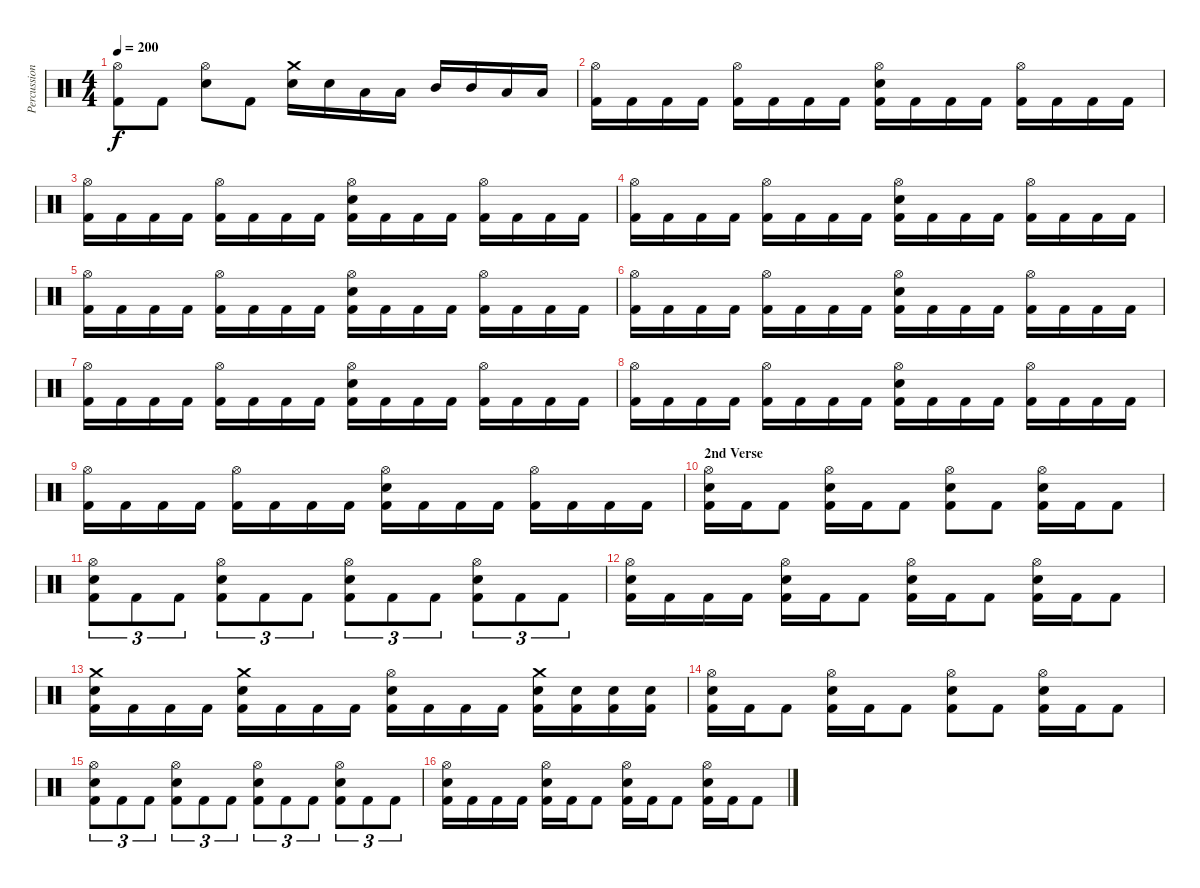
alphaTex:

\track ("Percussion" "Percussion") {instrument percussion}
\staff {score}
\articulation defaults
\ts (4 4)
\tempo 200
\clef neutral
\ks c
("Hi-Hat (open)" "Kick (hit) 2").8{dy f} "Kick (hit) 2".8 ("Hi-Hat (open)" "Electric Snare (hit)").8 "Kick (hit) 2".8 ("Crash medium (hit)" "Electric Snare (hit)").16 "Electric Snare (hit)".16 "Low Tom (hit)".16 "Low Tom (hit)".16 "Mid Tom (hit)".16 "Mid Tom (hit)".16 "Low Floor Tom (hit)".16 "Low Floor Tom (hit)".16 |
("Hi-Hat (open)" "Kick (hit) 2").16 "Kick (hit) 2".16 "Kick (hit) 2".16 "Kick (hit) 2".16 ("Hi-Hat (open)" "Kick (hit) 2").16 "Kick (hit) 2".16 "Kick (hit) 2".16 "Kick (hit) 2".16 ("Hi-Hat (open)" "Electric Snare (hit)" "Kick (hit) 2").16 "Kick (hit) 2".16 "Kick (hit) 2".16 "Kick (hit) 2".16 ("Hi-Hat (open)" "Kick (hit) 2").16 "Kick (hit) 2".16 "Kick (hit) 2".16 "Kick (hit) 2".16 |
("Hi-Hat (open)" "Kick (hit) 2").16 "Kick (hit) 2".16 "Kick (hit) 2".16 "Kick (hit) 2".16 ("Hi-Hat (open)" "Kick (hit) 2").16 "Kick (hit) 2".16 "Kick (hit) 2".16 "Kick (hit) 2".16 ("Hi-Hat (open)" "Electric Snare (hit)" "Kick (hit) 2").16 "Kick (hit) 2".16 "Kick (hit) 2".16 "Kick (hit) 2".16 ("Hi-Hat (open)" "Kick (hit) 2").16 "Kick (hit) 2".16 "Kick (hit) 2".16 "Kick (hit) 2".16 |
("Hi-Hat (open)" "Kick (hit) 2").16 "Kick (hit) 2".16 "Kick (hit) 2".16 "Kick (hit) 2".16 ("Hi-Hat (open)" "Kick (hit) 2").16 "Kick (hit) 2".16 "Kick (hit) 2".16 "Kick (hit) 2".16 ("Hi-Hat (open)" "Electric Snare (hit)" "Kick (hit) 2").16 "Kick (hit) 2".16 "Kick (hit) 2".16 "Kick (hit) 2".16 ("Hi-Hat (open)" "Kick (hit) 2").16 "Kick (hit) 2".16 "Kick (hit) 2".16 "Kick (hit) 2".16 |
("Hi-Hat (open)" "Kick (hit) 2").16 "Kick (hit) 2".16 "Kick (hit) 2".16 "Kick (hit) 2".16 ("Hi-Hat (open)" "Kick (hit) 2").16 "Kick (hit) 2".16 "Kick (hit) 2".16 "Kick (hit) 2".16 ("Hi-Hat (open)" "Electric Snare (hit)" "Kick (hit) 2").16 "Kick (hit) 2".16 "Kick (hit) 2".16 "Kick (hit) 2".16 ("Hi-Hat (open)" "Kick (hit) 2").16 "Kick (hit) 2".16 "Kick (hit) 2".16 "Kick (hit) 2".16 |
("Hi-Hat (open)" "Kick (hit) 2").16 "Kick (hit) 2".16 "Kick (hit) 2".16 "Kick (hit) 2".16 ("Hi-Hat (open)" "Kick (hit) 2").16 "Kick (hit) 2".16 "Kick (hit) 2".16 "Kick (hit) 2".16 ("Hi-Hat (open)" "Electric Snare (hit)" "Kick (hit) 2").16 "Kick (hit) 2".16 "Kick (hit) 2".16 "Kick (hit) 2".16 ("Hi-Hat (open)" "Kick (hit) 2").16 "Kick (hit) 2".16 "Kick (hit) 2".16 "Kick (hit) 2".16 |
("Hi-Hat (open)" "Kick (hit) 2").16 "Kick (hit) 2".16 "Kick (hit) 2".16 "Kick (hit) 2".16 ("Hi-Hat (open)" "Kick (hit) 2").16 "Kick (hit) 2".16 "Kick (hit) 2".16 "Kick (hit) 2".16 ("Hi-Hat (open)" "Electric Snare (hit)" "Kick (hit) 2").16 "Kick (hit) 2".16 "Kick (hit) 2".16 "Kick (hit) 2".16 ("Hi-Hat (open)" "Kick (hit) 2").16 "Kick (hit) 2".16 "Kick (hit) 2".16 "Kick (hit) 2".16 |
("Hi-Hat (open)" "Kick (hit) 2").16 "Kick (hit) 2".16 "Kick (hit) 2".16 "Kick (hit) 2".16 ("Hi-Hat (open)" "Kick (hit) 2").16 "Kick (hit) 2".16 "Kick (hit) 2".16 "Kick (hit) 2".16 ("Hi-Hat (open)" "Electric Snare (hit)" "Kick (hit) 2").16 "Kick (hit) 2".16 "Kick (hit) 2".16 "Kick (hit) 2".16 ("Hi-Hat (open)" "Kick (hit) 2").16 "Kick (hit) 2".16 "Kick (hit) 2".16 "Kick (hit) 2".16 |
("Hi-Hat (open)" "Kick (hit) 2").16 "Kick (hit) 2".16 "Kick (hit) 2".16 "Kick (hit) 2".16 ("Hi-Hat (open)" "Kick (hit) 2").16 "Kick (hit) 2".16 "Kick (hit) 2".16 "Kick (hit) 2".16 ("Hi-Hat (open)" "Electric Snare (hit)" "Kick (hit) 2").16 "Kick (hit) 2".16 "Kick (hit) 2".16 "Kick (hit) 2".16 ("Hi-Hat (open)" "Kick (hit) 2").16 "Kick (hit) 2".16 "Kick (hit) 2".16 "Kick (hit) 2".16 |
\section ("" "2nd Verse")
("Hi-Hat (open)" "Electric Snare (hit)" "Kick (hit) 2").16 "Kick (hit) 2".16 "Kick (hit) 2".8 ("Hi-Hat (open)" "Electric Snare (hit)" "Kick (hit) 2").16 "Kick (hit) 2".16 "Kick (hit) 2".8 ("Hi-Hat (open)" "Electric Snare (hit)" "Kick (hit) 2").8 "Kick (hit) 2".8 ("Hi-Hat (open)" "Electric Snare (hit)" "Kick (hit) 2").16 "Kick (hit) 2".16 "Kick (hit) 2".8 |
("Hi-Hat (open)" "Electric Snare (hit)" "Kick (hit) 2").8{tu (3 2)} "Kick (hit) 2".8{tu (3 2)} "Kick (hit) 2".8{tu (3 2)} ("Hi-Hat (open)" "Electric Snare (hit)" "Kick (hit) 2").8{tu (3 2)} "Kick (hit) 2".8{tu (3 2)} "Kick (hit) 2".8{tu (3 2)} ("Hi-Hat (open)" "Electric Snare (hit)" "Kick (hit) 2").8{tu (3 2)} "Kick (hit) 2".8{tu (3 2)} "Kick (hit) 2".8{tu (3 2)} ("Hi-Hat (open)" "Electric Snare (hit)" "Kick (hit) 2").8{tu (3 2)} "Kick (hit) 2".8{tu (3 2)} "Kick (hit) 2".8{tu (3 2)} |
("Hi-Hat (open)" "Electric Snare (hit)" "Kick (hit) 2").16 "Kick (hit) 2".16 "Kick (hit) 2".16 "Kick (hit) 2".16 ("Hi-Hat (open)" "Electric Snare (hit)" "Kick (hit) 2").16 "Kick (hit) 2".16 "Kick (hit) 2".8 ("Hi-Hat (open)" "Electric Snare (hit)" "Kick (hit) 2").16 "Kick (hit) 2".16 "Kick (hit) 2".8 ("Hi-Hat (open)" "Electric Snare (hit)" "Kick (hit) 2").16 "Kick (hit) 2".16 "Kick (hit) 2".8 |
("Crash medium (hit)" "Electric Snare (hit)" "Kick (hit) 2").16 "Kick (hit) 2".16 "Kick (hit) 2".16 "Kick (hit) 2".16 ("Crash medium (hit)" "Electric Snare (hit)" "Kick (hit) 2").16 "Kick (hit) 2".16 "Kick (hit) 2".16 "Kick (hit) 2".16 ("Hi-Hat (open)" "Electric Snare (hit)" "Kick (hit) 2").16 "Kick (hit) 2".16 "Kick (hit) 2".16 "Kick (hit) 2".16 ("Crash medium (hit)" "Electric Snare (hit)" "Kick (hit) 2").16 ("Electric Snare (hit)" "Kick (hit) 2").16 ("Electric Snare (hit)" "Kick (hit) 2").16 ("Electric Snare (hit)" "Kick (hit) 2").16 |
("Hi-Hat (open)" "Electric Snare (hit)" "Kick (hit) 2").16 "Kick (hit) 2".16 "Kick (hit) 2".8 ("Hi-Hat (open)" "Electric Snare (hit)" "Kick (hit) 2").16 "Kick (hit) 2".16 "Kick (hit) 2".8 ("Hi-Hat (open)" "Electric Snare (hit)" "Kick (hit) 2").8 "Kick (hit) 2".8 ("Hi-Hat (open)" "Electric Snare (hit)" "Kick (hit) 2").16 "Kick (hit) 2".16 "Kick (hit) 2".8 |
("Hi-Hat (open)" "Electric Snare (hit)" "Kick (hit) 2").8{tu (3 2)} "Kick (hit) 2".8{tu (3 2)} "Kick (hit) 2".8{tu (3 2)} ("Hi-Hat (open)" "Electric Snare (hit)" "Kick (hit) 2").8{tu (3 2)} "Kick (hit) 2".8{tu (3 2)} "Kick (hit) 2".8{tu (3 2)} ("Hi-Hat (open)" "Electric Snare (hit)" "Kick (hit) 2").8{tu (3 2)} "Kick (hit) 2".8{tu (3 2)} "Kick (hit) 2".8{tu (3 2)} ("Hi-Hat (open)" "Electric Snare (hit)" "Kick (hit) 2").8{tu (3 2)} "Kick (hit) 2".8{tu (3 2)} "Kick (hit) 2".8{tu (3 2)} |
("Hi-Hat (open)" "Electric Snare (hit)" "Kick (hit) 2").16 "Kick (hit) 2".16 "Kick (hit) 2".16 "Kick (hit) 2".16 ("Hi-Hat (open)" "Electric Snare (hit)" "Kick (hit) 2").16 "Kick (hit) 2".16 "Kick (hit) 2".8 ("Hi-Hat (open)" "Electric Snare (hit)" "Kick (hit) 2").16 "Kick (hit) 2".16 "Kick (hit) 2".8 ("Hi-Hat (open)" "Electric Snare (hit)" "Kick (hit) 2").16 "Kick (hit) 2".16 "Kick (hit) 2".8
